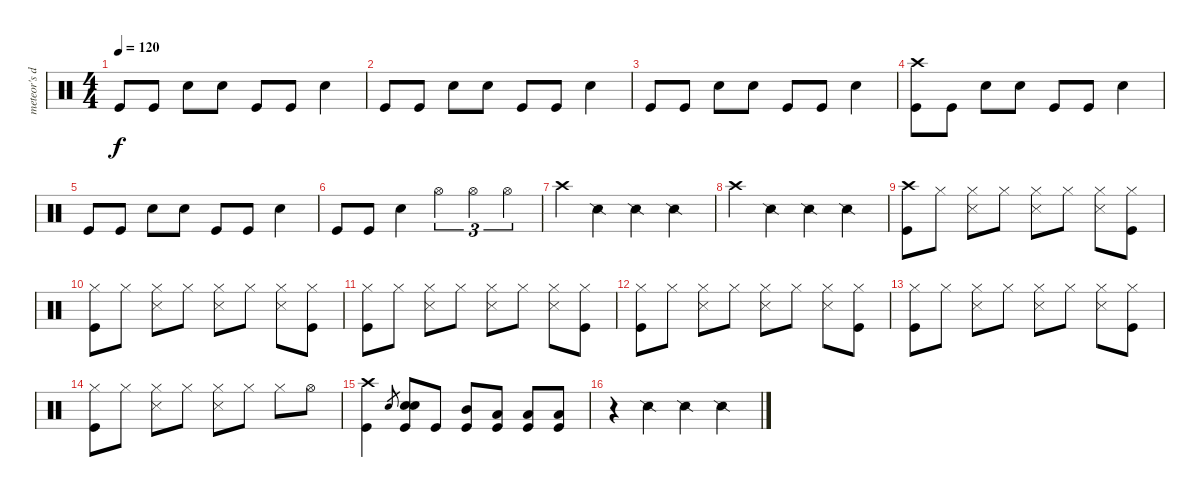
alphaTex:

\track ("meteor's drum:)" "meteor's d") {instrument percussion}
\staff {score}
\articulation defaults
\ts (4 4)
\tempo 120
\clef neutral
\ks c "Kick (hit)".8{dy f} "Kick (hit)".8 "Snare (hit) 2".8 "Snare (hit) 2".8 "Kick (hit)".8 "Kick (hit)".8 "Snare (hit) 2".4
|
"Kick (hit)".8 "Kick (hit)".8 "Snare (hit) 2".8 "Snare (hit) 2".8 "Kick (hit)".8 "Kick (hit)".8 "Snare (hit) 2".4 |
"Kick (hit)".8 "Kick (hit)".8 "Snare (hit) 2".8 "Snare (hit) 2".8 "Kick (hit)".8 "Kick (hit)".8 "Snare (hit) 2".4 |
("Kick (hit)" "Crash high (hit)").8 "Kick (hit)".8 "Snare (hit) 2".8 "Snare (hit) 2".8 "Kick (hit)".8 "Kick (hit)".8 "Snare (hit) 2".4 |
"Kick (hit)".8 "Kick (hit)".8 "Snare (hit) 2".8 "Snare (hit) 2".8 "Kick (hit)".8 "Kick (hit)".8 "Snare (hit) 2".4 |
"Kick (hit)".8 "Kick (hit)".8 "Snare (hit) 2".4 "Hi-Hat (open)".4{tu (3 2)} "Hi-Hat (open)".4{tu (3 2)} "Hi-Hat (open)".4{tu (3 2)} |
"Crash high (hit)".4 "Snare (side stick) 2".4 "Snare (side stick) 2".4 "Snare (side stick) 2".4 |
"Crash high (hit)".4 "Snare (side stick) 2".4 "Snare (side stick) 2".4 "Snare (side stick) 2".4 |
("Crash high (hit)" "Kick (hit)").8 "Hi-Hat (closed)".8 ("Snare (side stick) 3" "Hi-Hat (closed)").8 "Hi-Hat (closed)".8 ("Snare (side stick) 3" "Hi-Hat (closed)").8 "Hi-Hat (closed)".8 ("Snare (side stick) 3" "Hi-Hat (closed)").8 ("Kick (hit)" "Hi-Hat (closed)").8 |
("Hi-Hat (closed)" "Kick (hit)").8 "Hi-Hat (closed)".8 ("Snare (side stick) 3" "Hi-Hat (closed)").8 "Hi-Hat (closed)".8 ("Snare (side stick) 3" "Hi-Hat (closed)").8 "Hi-Hat (closed)".8 ("Snare (side stick) 3" "Hi-Hat (closed)").8 ("Kick (hit)" "Hi-Hat (closed)").8 |
("Hi-Hat (closed)" "Kick (hit)").8 "Hi-Hat (closed)".8 ("Snare (side stick) 3" "Hi-Hat (closed)").8 "Hi-Hat (closed)".8 ("Snare (side stick) 3" "Hi-Hat (closed)").8 "Hi-Hat (closed)".8 ("Snare (side stick) 3" "Hi-Hat (closed)").8 ("Kick (hit)" "Hi-Hat (closed)").8 |
("Hi-Hat (closed)" "Kick (hit)").8 "Hi-Hat (closed)".8 ("Snare (side stick) 3" "Hi-Hat (closed)").8 "Hi-Hat (closed)".8 ("Snare (side stick) 3" "Hi-Hat (closed)").8 "Hi-Hat (closed)".8 ("Snare (side stick) 3" "Hi-Hat (closed)").8 ("Kick (hit)" "Hi-Hat (closed)").8 |
("Hi-Hat (closed)" "Kick (hit)").8 "Hi-Hat (closed)".8 ("Snare (side stick) 3" "Hi-Hat (closed)").8 "Hi-Hat (closed)".8 ("Snare (side stick) 3" "Hi-Hat (closed)").8 "Hi-Hat (closed)".8 ("Snare (side stick) 3" "Hi-Hat (closed)").8 ("Kick (hit)" "Hi-Hat (closed)").8 |
("Hi-Hat (closed)" "Kick (hit)").8 "Hi-Hat (closed)".8 ("Snare (side stick) 3" "Hi-Hat (closed)").8 "Hi-Hat (closed)".8 ("Snare (side stick) 3" "Hi-Hat (closed)").8 "Hi-Hat (closed)".8 "Hi-Hat (closed)".8 "Hi-Hat (open)".8 |
("Kick (hit)" "Crash high (hit)").4 "Snare (hit) 2".8{gr} ("Kick (hit)" "Snare (hit) 2" "Snare (hit) 2").8 "Kick (hit)".8 ("Kick (hit)" "Mid Tom (hit)").8 ("Kick (hit)" "Low Floor Tom (hit)").8 ("Kick (hit)" "Low Floor Tom (hit)").8 ("Kick (hit)" "Low Floor Tom (hit)").8 |
r.4 "Snare (side stick) 2".4 "Snare (side stick) 2".4 "Snare (side stick) 2".4
